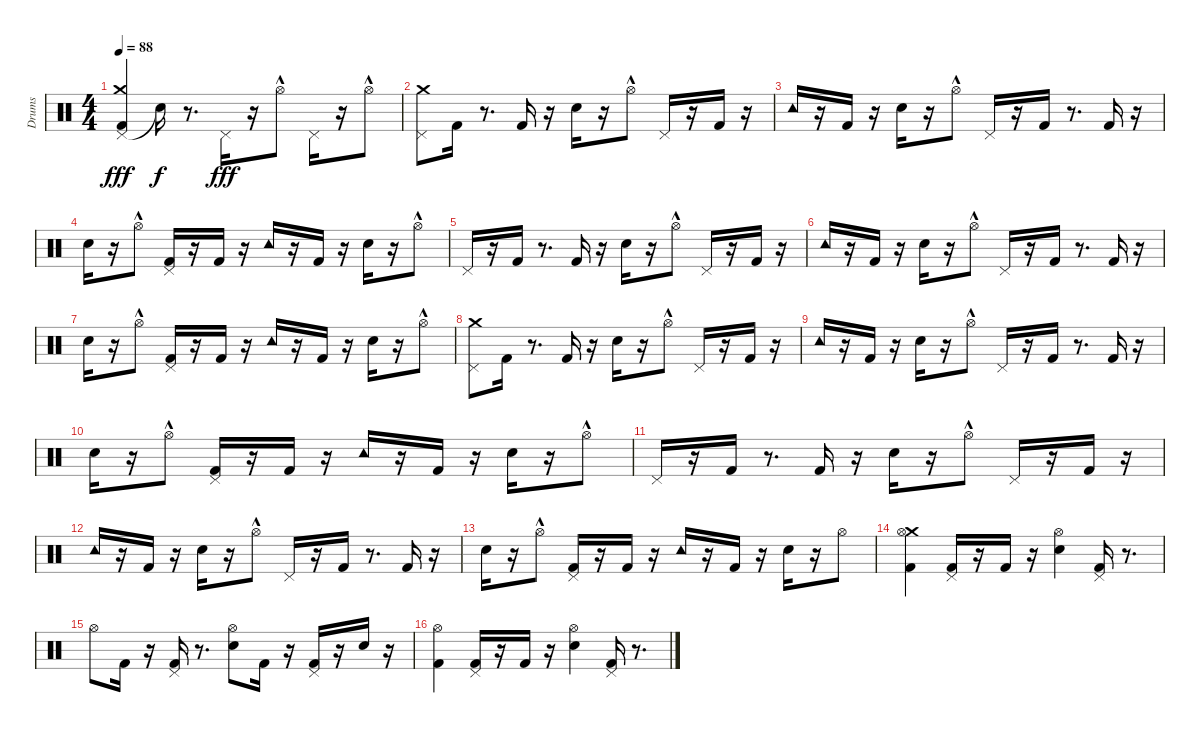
\track ("Drums" "Drums") {instrument percussion}
\staff {score}
\articulation defaults
\ts (4 4)
\tempo 88
\clef neutral
\ks c
("Pedal Hi-Hat (hit)" "Crash medium (hit)" "Kick (hit) 2").4{dy fff} "Snare (hit)"{t}.16{dy f} r.8{d} "Pedal Hi-Hat (hit)".16{dy fff} r.16 "Hi-Hat (open)"{hac}.8 "Pedal Hi-Hat (hit)".16 r.16 "Hi-Hat (open)"{hac}.8 |
("Crash medium (hit)" "Pedal Hi-Hat (hit)").8 "Kick (hit) 2".16 r.8{d} "Kick (hit) 2".16 r.16 "Snare (hit) 2".16 r.16 "Hi-Hat (open)"{hac}.8 "Pedal Hi-Hat (hit)".16 r.16 "Kick (hit) 2".16 r.16 |
"Tambourine (hit)".16 r.16 "Kick (hit) 2".16 r.16 "Snare (hit) 2".16 r.16 "Hi-Hat (open)"{hac}.8 "Pedal Hi-Hat (hit)".16 r.16 "Kick (hit) 2".16 r.8{d} "Kick (hit) 2".16 r.16 |
"Snare (hit) 2".16 r.16 "Hi-Hat (open)"{hac}.8 ("Pedal Hi-Hat (hit)" "Kick (hit) 2").16 r.16 "Kick (hit) 2".16 r.16 "Tambourine (hit)".16 r.16 "Kick (hit) 2".16 r.16 "Snare (hit) 2".16 r.16 "Hi-Hat (open)"{hac}.8 |
"Pedal Hi-Hat (hit)".16 r.16 "Kick (hit) 2".16 r.8{d} "Kick (hit) 2".16 r.16 "Snare (hit) 2".16 r.16 "Hi-Hat (open)"{hac}.8 "Pedal Hi-Hat (hit)".16 r.16 "Kick (hit) 2".16 r.16 |
"Tambourine (hit)".16 r.16 "Kick (hit) 2".16 r.16 "Snare (hit) 2".16 r.16 "Hi-Hat (open)"{hac}.8 "Pedal Hi-Hat (hit)".16 r.16 "Kick (hit) 2".16 r.8{d} "Kick (hit) 2".16 r.16 |
"Snare (hit) 2".16 r.16 "Hi-Hat (open)"{hac}.8 ("Pedal Hi-Hat (hit)" "Kick (hit) 2").16 r.16 "Kick (hit) 2".16 r.16 "Tambourine (hit)".16 r.16 "Kick (hit) 2".16 r.16 "Snare (hit) 2".16 r.16 "Hi-Hat (open)"{hac}.8 |
("Crash medium (hit)" "Pedal Hi-Hat (hit)").8 "Kick (hit) 2".16 r.8{d} "Kick (hit) 2".16 r.16 "Snare (hit) 2".16 r.16 "Hi-Hat (open)"{hac}.8 "Pedal Hi-Hat (hit)".16 r.16 "Kick (hit) 2".16 r.16 |
"Tambourine (hit)".16 r.16 "Kick (hit) 2".16 r.16 "Snare (hit) 2".16 r.16 "Hi-Hat (open)"{hac}.8 "Pedal Hi-Hat (hit)".16 r.16 "Kick (hit) 2".16 r.8{d} "Kick (hit) 2".16 r.16 |
"Snare (hit) 2".16 r.16 "Hi-Hat (open)"{hac}.8 ("Pedal Hi-Hat (hit)" "Kick (hit) 2").16 r.16 "Kick (hit) 2".16 r.16 "Tambourine (hit)".16 r.16 "Kick (hit) 2".16 r.16 "Snare (hit) 2".16 r.16 "Hi-Hat (open)"{hac}.8 |
"Pedal Hi-Hat (hit)".16 r.16 "Kick (hit) 2".16 r.8{d} "Kick (hit) 2".16 r.16 "Snare (hit) 2".16 r.16 "Hi-Hat (open)"{hac}.8 "Pedal Hi-Hat (hit)".16 r.16 "Kick (hit) 2".16 r.16 |
"Tambourine (hit)".16 r.16 "Kick (hit) 2".16 r.16 "Snare (hit) 2".16 r.16 "Hi-Hat (open)"{hac}.8 "Pedal Hi-Hat (hit)".16 r.16 "Kick (hit) 2".16 r.8{d} "Kick (hit) 2".16 r.16 |
"Snare (hit) 2".16 r.16 "Hi-Hat (open)"{hac}.8 ("Pedal Hi-Hat (hit)" "Kick (hit) 2").16 r.16 "Kick (hit) 2".16 r.16 "Tambourine (hit)".16 r.16 "Kick (hit) 2".16 r.16 "Snare (hit) 2".16 r.16 "Hi-Hat (open)".8 |
("Crash medium (hit)" "Hi-Hat (open)" "Kick (hit) 2").4 ("Pedal Hi-Hat (hit)" "Kick (hit) 2").16 r.16 "Kick (hit) 2".16 r.16 ("Hi-Hat (open)" "Snare (hit) 2").4 ("Pedal Hi-Hat (hit)" "Kick (hit) 2").16 r.8{d} |
"Hi-Hat (open)".8 "Kick (hit) 2".16 r.16 ("Pedal Hi-Hat (hit)" "Kick (hit) 2").16 r.8{d} ("Hi-Hat (open)" "Snare (hit) 2").8 "Kick (hit) 2".16 r.16 ("Pedal Hi-Hat (hit)" "Kick (hit) 2").16 r.16 "Snare (hit) 2".16 r.16 |
("Hi-Hat (open)" "Kick (hit) 2").4 ("Pedal Hi-Hat (hit)" "Kick (hit) 2").16 r.16 "Kick (hit) 2".16 r.16 ("Hi-Hat (open)" "Snare (hit) 2").4 ("Pedal Hi-Hat (hit)" "Kick (hit) 2").16 r.8{d}
